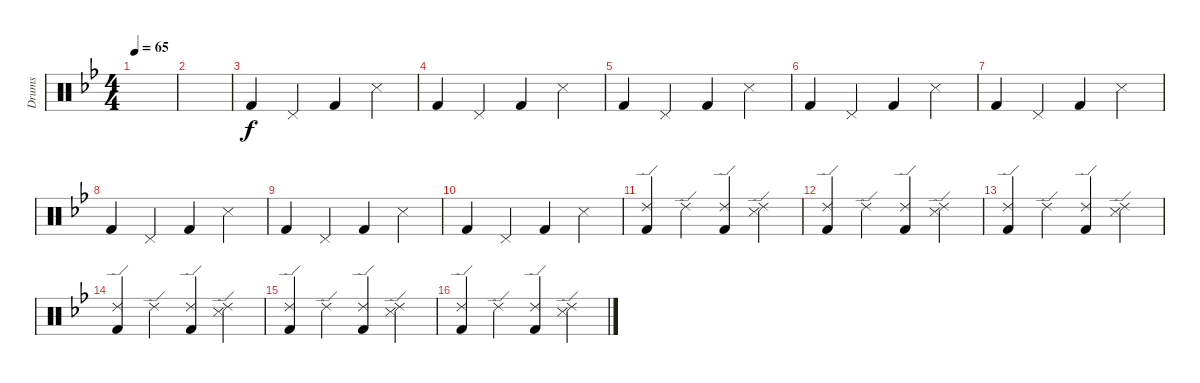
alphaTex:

\track ("Drums" "Drums") {instrument percussion}
\staff {score}
\articulation defaults
\ts (4 4)
\tempo 65
\clef neutral
\ks bb
|
|
"Kick (hit) 2".4 "Pedal Hi-Hat (hit)".4 "Kick (hit) 2".4 "Snare (side stick) 3".4 |
"Kick (hit) 2".4 "Pedal Hi-Hat (hit)".4 "Kick (hit) 2".4 "Snare (side stick) 3".4 |
"Kick (hit) 2".4 "Pedal Hi-Hat (hit)".4 "Kick (hit) 2".4 "Snare (side stick) 3".4 |
"Kick (hit) 2".4 "Pedal Hi-Hat (hit)".4 "Kick (hit) 2".4 "Snare (side stick) 3".4 |
"Kick (hit) 2".4 "Pedal Hi-Hat (hit)".4 "Kick (hit) 2".4 "Snare (side stick) 3".4 |
"Kick (hit) 2".4 "Pedal Hi-Hat (hit)".4 "Kick (hit) 2".4 "Snare (side stick) 3".4 |
"Kick (hit) 2".4 "Pedal Hi-Hat (hit)".4 "Kick (hit) 2".4 "Snare (side stick) 3".4 |
"Kick (hit) 2".4 "Pedal Hi-Hat (hit)".4 "Kick (hit) 2".4 "Snare (side stick) 3".4 |
("Ride (edge) 2" "Kick (hit) 2").4 "Ride (edge) 2".4 ("Ride (edge) 2" "Kick (hit) 2").4 ("Ride (edge) 2" "Snare (side stick) 3").4 |
("Ride (edge) 2" "Kick (hit) 2").4 "Ride (edge) 2".4 ("Ride (edge) 2" "Kick (hit) 2").4 ("Ride (edge) 2" "Snare (side stick) 3").4 |
("Ride (edge) 2" "Kick (hit) 2").4 "Ride (edge) 2".4 ("Ride (edge) 2" "Kick (hit) 2").4 ("Ride (edge) 2" "Snare (side stick) 3").4 |
("Ride (edge) 2" "Kick (hit) 2").4 "Ride (edge) 2".4 ("Ride (edge) 2" "Kick (hit) 2").4 ("Ride (edge) 2" "Snare (side stick) 3").4 |
("Ride (edge) 2" "Kick (hit) 2").4 "Ride (edge) 2".4 ("Ride (edge) 2" "Kick (hit) 2").4 ("Ride (edge) 2" "Snare (side stick) 3").4 |
("Ride (edge) 2" "Kick (hit) 2").4 "Ride (edge) 2".4 ("Ride (edge) 2" "Kick (hit) 2").4 ("Ride (edge) 2" "Snare (side stick) 3").4
